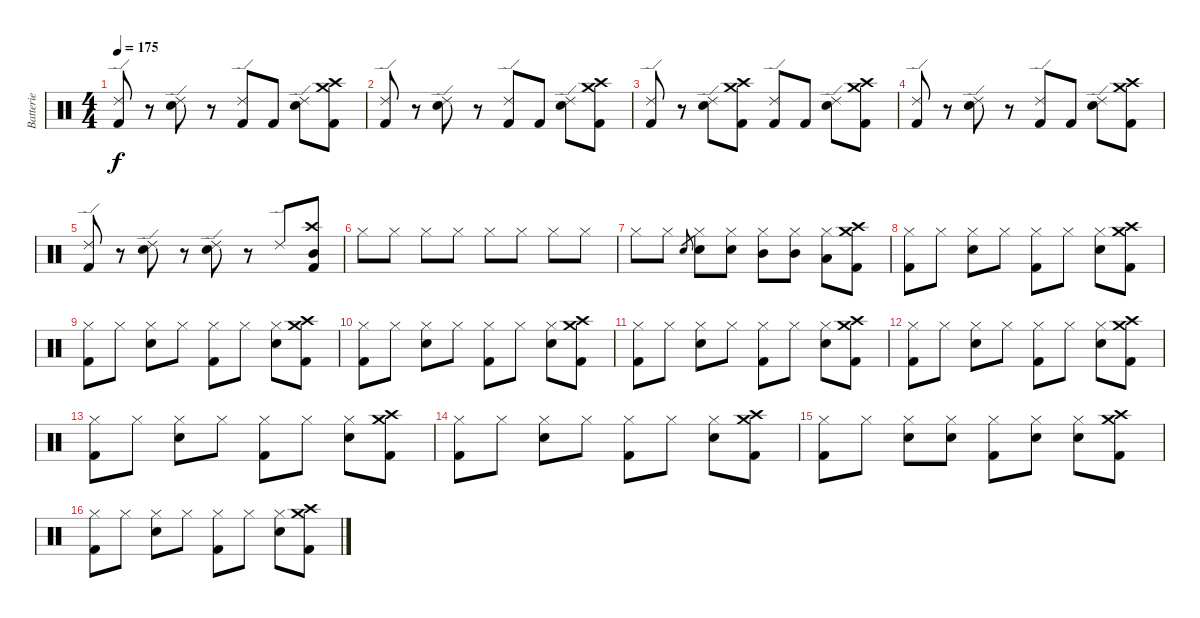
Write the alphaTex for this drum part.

\track ("Batterie" "Batterie") {instrument percussion}
\staff {score}
\articulation defaults
\ts (4 4)
\tempo 175
\clef neutral
\ks c
("Ride (edge) 2" "Kick (hit) 2").8{dy f} r.8 ("Ride (edge) 2" "Snare (hit) 2").8 r.8 ("Ride (edge) 2" "Kick (hit) 2").8 "Kick (hit) 2".8 ("Ride (edge) 2" "Snare (hit) 2").8 ("Crash medium (hit)" "Crash high (hit)" "Kick (hit) 2").8 |
("Ride (edge) 2" "Kick (hit) 2").8 r.8 ("Ride (edge) 2" "Snare (hit) 2").8 r.8 ("Ride (edge) 2" "Kick (hit) 2").8 "Kick (hit) 2".8 ("Ride (edge) 2" "Snare (hit) 2").8 ("Crash medium (hit)" "Crash high (hit)" "Kick (hit) 2").8 |
("Ride (edge) 2" "Kick (hit) 2").8 r.8 ("Ride (edge) 2" "Snare (hit) 2").8 ("Crash medium (hit)" "Crash high (hit)" "Kick (hit) 2").8 ("Ride (edge) 2" "Kick (hit) 2").8 "Kick (hit) 2".8 ("Ride (edge) 2" "Snare (hit) 2").8 ("Crash medium (hit)" "Crash high (hit)" "Kick (hit) 2").8 |
("Ride (edge) 2" "Kick (hit) 2").8 r.8 ("Ride (edge) 2" "Snare (hit) 2").8 r.8 ("Ride (edge) 2" "Kick (hit) 2").8 "Kick (hit) 2".8 ("Ride (edge) 2" "Snare (hit) 2").8 ("Crash medium (hit)" "Crash high (hit)" "Kick (hit) 2").8 |
("Ride (edge) 2" "Kick (hit) 2").8 r.8 ("Ride (edge) 2" "Snare (hit) 2").8 r.8 ("Ride (edge) 2" "Snare (hit) 2").8 r.8 "Ride (edge) 2".8 ("Crash high (hit)" "Mid Tom (hit)" "Kick (hit) 2").8 |
"Hi-Hat (closed)".8 "Hi-Hat (closed)".8 "Hi-Hat (closed)".8 "Hi-Hat (closed)".8 "Hi-Hat (closed)".8 "Hi-Hat (closed)".8 "Hi-Hat (closed)".8 "Hi-Hat (closed)".8 |
"Hi-Hat (closed)".8 "Hi-Hat (closed)".8 "Snare (hit) 2".8{gr} ("Hi-Hat (closed)" "Snare (hit) 2").8 ("Hi-Hat (closed)" "Snare (hit) 2").8 ("Hi-Hat (closed)" "Mid Tom (hit)").8 ("Hi-Hat (closed)" "Mid Tom (hit)").8 ("Hi-Hat (closed)" "Low Tom (hit)").8 ("Crash high (hit)" "Crash medium (hit)" "Kick (hit) 2").8 |
("Hi-Hat (closed)" "Kick (hit) 2").8 "Hi-Hat (closed)".8 ("Hi-Hat (closed)" "Snare (hit) 2").8 "Hi-Hat (closed)".8 ("Hi-Hat (closed)" "Kick (hit) 2").8 "Hi-Hat (closed)".8 ("Hi-Hat (closed)" "Snare (hit) 2").8 ("Crash high (hit)" "Crash medium (hit)" "Kick (hit) 2").8 |
("Hi-Hat (closed)" "Kick (hit) 2").8 "Hi-Hat (closed)".8 ("Hi-Hat (closed)" "Snare (hit) 2").8 "Hi-Hat (closed)".8 ("Hi-Hat (closed)" "Kick (hit) 2").8 "Hi-Hat (closed)".8 ("Hi-Hat (closed)" "Snare (hit) 2").8 ("Crash high (hit)" "Crash medium (hit)" "Kick (hit) 2").8 |
("Hi-Hat (closed)" "Kick (hit) 2").8 "Hi-Hat (closed)".8 ("Hi-Hat (closed)" "Snare (hit) 2").8 "Hi-Hat (closed)".8 ("Hi-Hat (closed)" "Kick (hit) 2").8 "Hi-Hat (closed)".8 ("Hi-Hat (closed)" "Snare (hit) 2").8 ("Crash high (hit)" "Crash medium (hit)" "Kick (hit) 2").8 |
("Hi-Hat (closed)" "Kick (hit) 2").8 "Hi-Hat (closed)".8 ("Hi-Hat (closed)" "Snare (hit) 2").8 "Hi-Hat (closed)".8 ("Hi-Hat (closed)" "Kick (hit) 2").8 "Hi-Hat (closed)".8 ("Hi-Hat (closed)" "Snare (hit) 2").8 ("Crash high (hit)" "Crash medium (hit)" "Kick (hit) 2").8 |
("Hi-Hat (closed)" "Kick (hit) 2").8 "Hi-Hat (closed)".8 ("Hi-Hat (closed)" "Snare (hit) 2").8 "Hi-Hat (closed)".8 ("Hi-Hat (closed)" "Kick (hit) 2").8 "Hi-Hat (closed)".8 ("Hi-Hat (closed)" "Snare (hit) 2").8 ("Crash high (hit)" "Crash medium (hit)" "Kick (hit) 2").8 |
("Hi-Hat (closed)" "Kick (hit) 2").8 "Hi-Hat (closed)".8 ("Hi-Hat (closed)" "Snare (hit) 2").8 "Hi-Hat (closed)".8 ("Hi-Hat (closed)" "Kick (hit) 2").8 "Hi-Hat (closed)".8 ("Hi-Hat (closed)" "Snare (hit) 2").8 ("Crash high (hit)" "Crash medium (hit)" "Kick (hit) 2").8 |
("Hi-Hat (closed)" "Kick (hit) 2").8 "Hi-Hat (closed)".8 ("Hi-Hat (closed)" "Snare (hit) 2").8 "Hi-Hat (closed)".8 ("Hi-Hat (closed)" "Kick (hit) 2").8 "Hi-Hat (closed)".8 ("Hi-Hat (closed)" "Snare (hit) 2").8 ("Crash high (hit)" "Crash medium (hit)" "Kick (hit) 2").8 |
("Hi-Hat (closed)" "Kick (hit) 2").8 "Hi-Hat (closed)".8 ("Hi-Hat (closed)" "Snare (hit) 2").8 ("Hi-Hat (closed)" "Snare (hit) 2").8 ("Hi-Hat (closed)" "Kick (hit) 2").8 ("Hi-Hat (closed)" "Snare (hit) 2").8 ("Hi-Hat (closed)" "Snare (hit) 2").8 ("Crash high (hit)" "Crash medium (hit)" "Kick (hit) 2").8 |
("Hi-Hat (closed)" "Kick (hit) 2").8 "Hi-Hat (closed)".8 ("Hi-Hat (closed)" "Snare (hit) 2").8 "Hi-Hat (closed)".8 ("Hi-Hat (closed)" "Kick (hit) 2").8 "Hi-Hat (closed)".8 ("Hi-Hat (closed)" "Snare (hit) 2").8 ("Crash high (hit)" "Crash medium (hit)" "Kick (hit) 2").8
